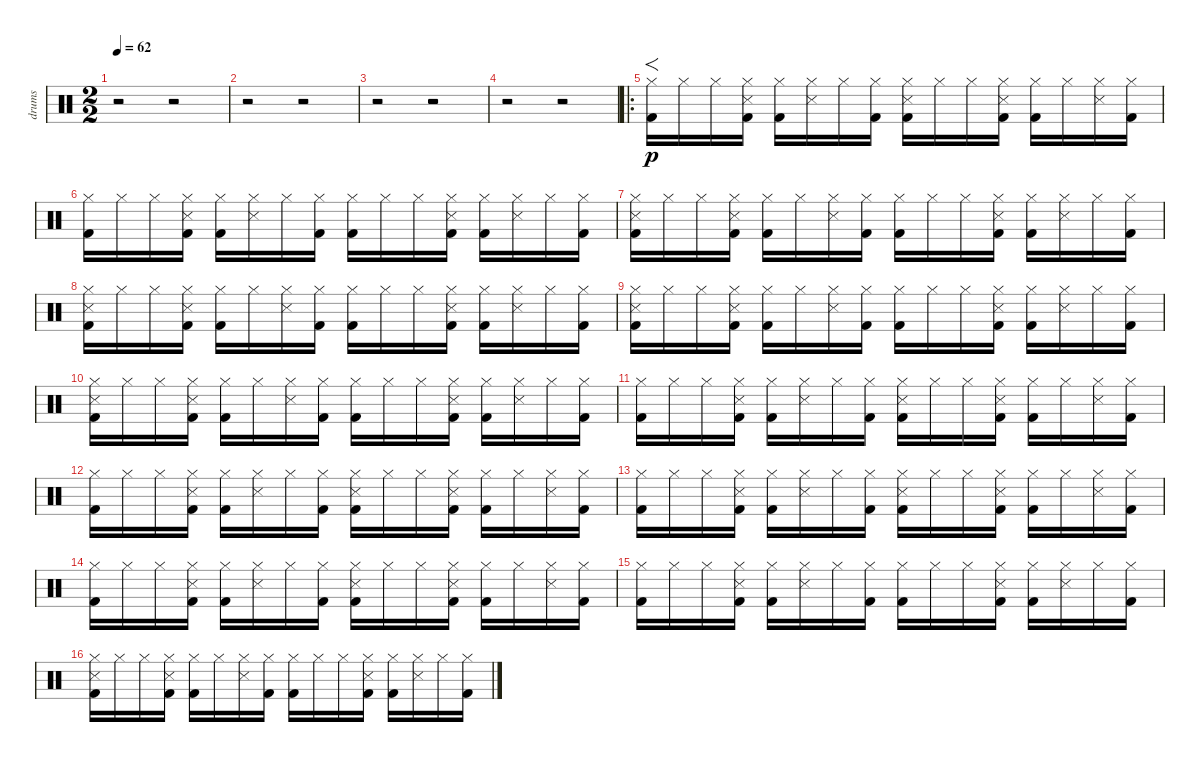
\track ("drums" "drums") {instrument percussion}
\staff {score}
\articulation defaults
\ts (2 2)
\tempo 62
\clef neutral
\ks c
r.2{dy p} r.2 |
r.2 r.2 |
r.2 r.2 |
r.2 r.2 |
\ro
("Hi-Hat (closed)" "Kick (hit) 2").16{f} "Hi-Hat (closed)".16 "Hi-Hat (closed)".16 ("Hi-Hat (closed)" "Snare (side stick) 3" "Kick (hit) 2").16 ("Hi-Hat (closed)" "Kick (hit) 2").16 ("Hi-Hat (closed)" "Snare (side stick) 3").16 "Hi-Hat (closed)".16 ("Hi-Hat (closed)" "Kick (hit) 2").16 ("Hi-Hat (closed)" "Snare (side stick) 3" "Kick (hit) 2").16 "Hi-Hat (closed)".16 "Hi-Hat (closed)".16 ("Hi-Hat (closed)" "Snare (side stick) 3" "Kick (hit) 2").16 ("Hi-Hat (closed)" "Kick (hit) 2").16 "Hi-Hat (closed)".16 ("Hi-Hat (closed)" "Snare (side stick) 3").16 ("Hi-Hat (closed)" "Kick (hit) 2").16 |
("Hi-Hat (closed)" "Kick (hit) 2").16 "Hi-Hat (closed)".16 "Hi-Hat (closed)".16 ("Hi-Hat (closed)" "Snare (side stick) 3" "Kick (hit) 2").16 ("Hi-Hat (closed)" "Kick (hit) 2").16 ("Hi-Hat (closed)" "Snare (side stick) 3").16 "Hi-Hat (closed)".16 ("Hi-Hat (closed)" "Kick (hit) 2").16 ("Hi-Hat (closed)" "Kick (hit) 2").16 "Hi-Hat (closed)".16 "Hi-Hat (closed)".16 ("Hi-Hat (closed)" "Snare (side stick) 3" "Kick (hit) 2").16 ("Hi-Hat (closed)" "Kick (hit) 2").16 ("Hi-Hat (closed)" "Snare (side stick) 3").16 "Hi-Hat (closed)".16 ("Hi-Hat (closed)" "Kick (hit) 2").16 |
("Hi-Hat (closed)" "Snare (side stick) 3" "Kick (hit) 2").16 "Hi-Hat (closed)".16 "Hi-Hat (closed)".16 ("Hi-Hat (closed)" "Snare (side stick) 3" "Kick (hit) 2").16 ("Hi-Hat (closed)" "Kick (hit) 2").16 "Hi-Hat (closed)".16 ("Hi-Hat (closed)" "Snare (side stick) 3").16 ("Hi-Hat (closed)" "Kick (hit) 2").16 ("Hi-Hat (closed)" "Kick (hit) 2").16 "Hi-Hat (closed)".16 "Hi-Hat (closed)".16 ("Hi-Hat (closed)" "Snare (side stick) 3" "Kick (hit) 2").16 ("Hi-Hat (closed)" "Kick (hit) 2").16 ("Hi-Hat (closed)" "Snare (side stick) 3").16 "Hi-Hat (closed)".16 ("Hi-Hat (closed)" "Kick (hit) 2").16 |
("Hi-Hat (closed)" "Snare (side stick) 3" "Kick (hit) 2").16 "Hi-Hat (closed)".16 "Hi-Hat (closed)".16 ("Hi-Hat (closed)" "Snare (side stick) 3" "Kick (hit) 2").16 ("Hi-Hat (closed)" "Kick (hit) 2").16 "Hi-Hat (closed)".16 ("Hi-Hat (closed)" "Snare (side stick) 3").16 ("Hi-Hat (closed)" "Kick (hit) 2").16 ("Hi-Hat (closed)" "Kick (hit) 2").16 "Hi-Hat (closed)".16 "Hi-Hat (closed)".16 ("Hi-Hat (closed)" "Snare (side stick) 3" "Kick (hit) 2").16 ("Hi-Hat (closed)" "Kick (hit) 2").16 ("Hi-Hat (closed)" "Snare (side stick) 3").16 "Hi-Hat (closed)".16 ("Hi-Hat (closed)" "Kick (hit) 2").16 |
("Hi-Hat (closed)" "Snare (side stick) 3" "Kick (hit) 2").16 "Hi-Hat (closed)".16 "Hi-Hat (closed)".16 ("Hi-Hat (closed)" "Snare (side stick) 3" "Kick (hit) 2").16 ("Hi-Hat (closed)" "Kick (hit) 2").16 "Hi-Hat (closed)".16 ("Hi-Hat (closed)" "Snare (side stick) 3").16 ("Hi-Hat (closed)" "Kick (hit) 2").16 ("Hi-Hat (closed)" "Kick (hit) 2").16 "Hi-Hat (closed)".16 "Hi-Hat (closed)".16 ("Hi-Hat (closed)" "Snare (side stick) 3" "Kick (hit) 2").16 ("Hi-Hat (closed)" "Kick (hit) 2").16 ("Hi-Hat (closed)" "Snare (side stick) 3").16 "Hi-Hat (closed)".16 ("Hi-Hat (closed)" "Kick (hit) 2").16 |
("Hi-Hat (closed)" "Snare (side stick) 3" "Kick (hit) 2").16 "Hi-Hat (closed)".16 "Hi-Hat (closed)".16 ("Hi-Hat (closed)" "Snare (side stick) 3" "Kick (hit) 2").16 ("Hi-Hat (closed)" "Kick (hit) 2").16 "Hi-Hat (closed)".16 ("Hi-Hat (closed)" "Snare (side stick) 3").16 ("Hi-Hat (closed)" "Kick (hit) 2").16 ("Hi-Hat (closed)" "Kick (hit) 2").16 "Hi-Hat (closed)".16 "Hi-Hat (closed)".16 ("Hi-Hat (closed)" "Snare (side stick) 3" "Kick (hit) 2").16 ("Hi-Hat (closed)" "Kick (hit) 2").16 ("Hi-Hat (closed)" "Snare (side stick) 3").16 "Hi-Hat (closed)".16 ("Hi-Hat (closed)" "Kick (hit) 2").16 |
("Hi-Hat (closed)" "Kick (hit) 2").16 "Hi-Hat (closed)".16 "Hi-Hat (closed)".16 ("Hi-Hat (closed)" "Snare (side stick) 3" "Kick (hit) 2").16 ("Hi-Hat (closed)" "Kick (hit) 2").16 ("Hi-Hat (closed)" "Snare (side stick) 3").16 "Hi-Hat (closed)".16 ("Hi-Hat (closed)" "Kick (hit) 2").16 ("Hi-Hat (closed)" "Snare (side stick) 3" "Kick (hit) 2").16 "Hi-Hat (closed)".16 "Hi-Hat (closed)".16 ("Hi-Hat (closed)" "Snare (side stick) 3" "Kick (hit) 2").16 ("Hi-Hat (closed)" "Kick (hit) 2").16 "Hi-Hat (closed)".16 ("Hi-Hat (closed)" "Snare (side stick) 3").16 ("Hi-Hat (closed)" "Kick (hit) 2").16 |
("Hi-Hat (closed)" "Kick (hit) 2").16 "Hi-Hat (closed)".16 "Hi-Hat (closed)".16 ("Hi-Hat (closed)" "Snare (side stick) 3" "Kick (hit) 2").16 ("Hi-Hat (closed)" "Kick (hit) 2").16 ("Hi-Hat (closed)" "Snare (side stick) 3").16 "Hi-Hat (closed)".16 ("Hi-Hat (closed)" "Kick (hit) 2").16 ("Hi-Hat (closed)" "Snare (side stick) 3" "Kick (hit) 2").16 "Hi-Hat (closed)".16 "Hi-Hat (closed)".16 ("Hi-Hat (closed)" "Snare (side stick) 3" "Kick (hit) 2").16 ("Hi-Hat (closed)" "Kick (hit) 2").16 "Hi-Hat (closed)".16 ("Hi-Hat (closed)" "Snare (side stick) 3").16 ("Hi-Hat (closed)" "Kick (hit) 2").16 |
("Hi-Hat (closed)" "Kick (hit) 2").16 "Hi-Hat (closed)".16 "Hi-Hat (closed)".16 ("Hi-Hat (closed)" "Snare (side stick) 3" "Kick (hit) 2").16 ("Hi-Hat (closed)" "Kick (hit) 2").16 ("Hi-Hat (closed)" "Snare (side stick) 3").16 "Hi-Hat (closed)".16 ("Hi-Hat (closed)" "Kick (hit) 2").16 ("Hi-Hat (closed)" "Snare (side stick) 3" "Kick (hit) 2").16 "Hi-Hat (closed)".16 "Hi-Hat (closed)".16 ("Hi-Hat (closed)" "Snare (side stick) 3" "Kick (hit) 2").16 ("Hi-Hat (closed)" "Kick (hit) 2").16 "Hi-Hat (closed)".16 ("Hi-Hat (closed)" "Snare (side stick) 3").16 ("Hi-Hat (closed)" "Kick (hit) 2").16 |
("Hi-Hat (closed)" "Kick (hit) 2").16 "Hi-Hat (closed)".16 "Hi-Hat (closed)".16 ("Hi-Hat (closed)" "Snare (side stick) 3" "Kick (hit) 2").16 ("Hi-Hat (closed)" "Kick (hit) 2").16 ("Hi-Hat (closed)" "Snare (side stick) 3").16 "Hi-Hat (closed)".16 ("Hi-Hat (closed)" "Kick (hit) 2").16 ("Hi-Hat (closed)" "Snare (side stick) 3" "Kick (hit) 2").16 "Hi-Hat (closed)".16 "Hi-Hat (closed)".16 ("Hi-Hat (closed)" "Snare (side stick) 3" "Kick (hit) 2").16 ("Hi-Hat (closed)" "Kick (hit) 2").16 "Hi-Hat (closed)".16 ("Hi-Hat (closed)" "Snare (side stick) 3").16 ("Hi-Hat (closed)" "Kick (hit) 2").16 |
("Hi-Hat (closed)" "Kick (hit) 2").16 "Hi-Hat (closed)".16 "Hi-Hat (closed)".16 ("Hi-Hat (closed)" "Snare (side stick) 3" "Kick (hit) 2").16 ("Hi-Hat (closed)" "Kick (hit) 2").16 ("Hi-Hat (closed)" "Snare (side stick) 3").16 "Hi-Hat (closed)".16 ("Hi-Hat (closed)" "Kick (hit) 2").16 ("Hi-Hat (closed)" "Kick (hit) 2").16 "Hi-Hat (closed)".16 "Hi-Hat (closed)".16 ("Hi-Hat (closed)" "Snare (side stick) 3" "Kick (hit) 2").16 ("Hi-Hat (closed)" "Kick (hit) 2").16 ("Hi-Hat (closed)" "Snare (side stick) 3").16 "Hi-Hat (closed)".16 ("Hi-Hat (closed)" "Kick (hit) 2").16 |
("Hi-Hat (closed)" "Snare (side stick) 3" "Kick (hit) 2").16 "Hi-Hat (closed)".16 "Hi-Hat (closed)".16 ("Hi-Hat (closed)" "Snare (side stick) 3" "Kick (hit) 2").16 ("Hi-Hat (closed)" "Kick (hit) 2").16 "Hi-Hat (closed)".16 ("Hi-Hat (closed)" "Snare (side stick) 3").16 ("Hi-Hat (closed)" "Kick (hit) 2").16 ("Hi-Hat (closed)" "Kick (hit) 2").16 "Hi-Hat (closed)".16 "Hi-Hat (closed)".16 ("Hi-Hat (closed)" "Snare (side stick) 3" "Kick (hit) 2").16 ("Hi-Hat (closed)" "Kick (hit) 2").16 ("Hi-Hat (closed)" "Snare (side stick) 3").16 "Hi-Hat (closed)".16 ("Hi-Hat (closed)" "Kick (hit) 2").16
